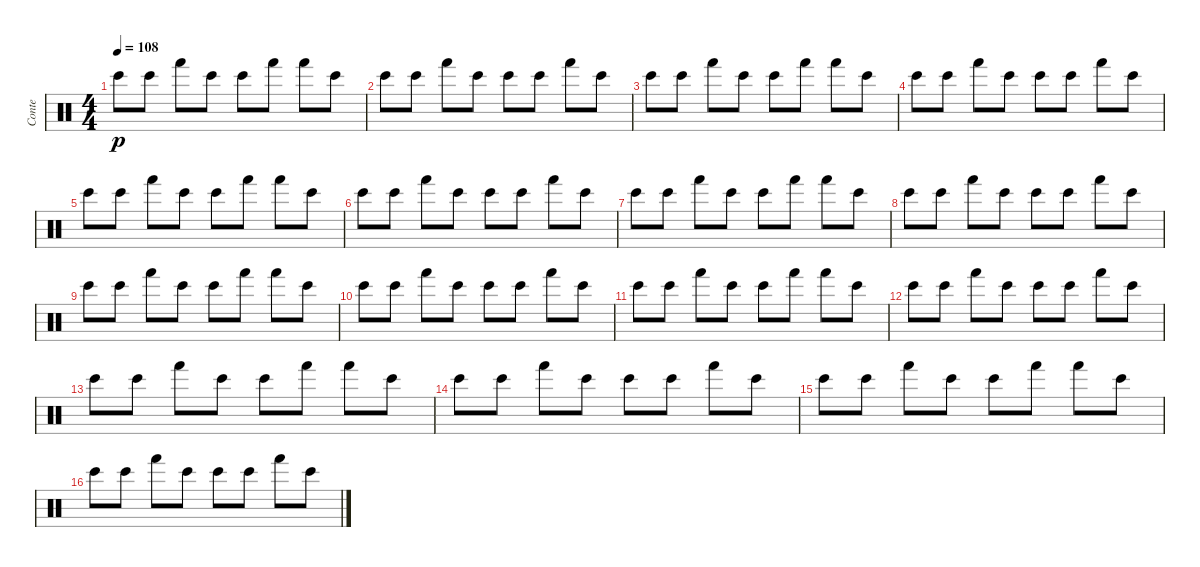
\track ("Conte" "Conte") {instrument percussion}
\staff {score}
\articulation defaults
\ts (4 4)
\tempo 108
\clef neutral
\ks c "Bongo High (hit)".8{dy p} "Bongo High (hit)".8 "Hand (hit)".8 "Bongo High (hit)".8 "Bongo High (hit)".8 "Hand (hit)".8 "Hand (hit)".8 "Bongo High (hit)".8
|
"Bongo High (hit)".8 "Bongo High (hit)".8 "Hand (hit)".8 "Bongo High (hit)".8 "Bongo High (hit)".8 "Bongo High (hit)".8 "Hand (hit)".8 "Bongo High (hit)".8 |
"Bongo High (hit)".8 "Bongo High (hit)".8 "Hand (hit)".8 "Bongo High (hit)".8 "Bongo High (hit)".8 "Hand (hit)".8 "Hand (hit)".8 "Bongo High (hit)".8 |
"Bongo High (hit)".8 "Bongo High (hit)".8 "Hand (hit)".8 "Bongo High (hit)".8 "Bongo High (hit)".8 "Bongo High (hit)".8 "Hand (hit)".8 "Bongo High (hit)".8 |
"Bongo High (hit)".8 "Bongo High (hit)".8 "Hand (hit)".8 "Bongo High (hit)".8 "Bongo High (hit)".8 "Hand (hit)".8 "Hand (hit)".8 "Bongo High (hit)".8 |
"Bongo High (hit)".8 "Bongo High (hit)".8 "Hand (hit)".8 "Bongo High (hit)".8 "Bongo High (hit)".8 "Bongo High (hit)".8 "Hand (hit)".8 "Bongo High (hit)".8 |
"Bongo High (hit)".8 "Bongo High (hit)".8 "Hand (hit)".8 "Bongo High (hit)".8 "Bongo High (hit)".8 "Hand (hit)".8 "Hand (hit)".8 "Bongo High (hit)".8 |
"Bongo High (hit)".8 "Bongo High (hit)".8 "Hand (hit)".8 "Bongo High (hit)".8 "Bongo High (hit)".8 "Bongo High (hit)".8 "Hand (hit)".8 "Bongo High (hit)".8 |
"Bongo High (hit)".8 "Bongo High (hit)".8 "Hand (hit)".8 "Bongo High (hit)".8 "Bongo High (hit)".8 "Hand (hit)".8 "Hand (hit)".8 "Bongo High (hit)".8 |
"Bongo High (hit)".8 "Bongo High (hit)".8 "Hand (hit)".8 "Bongo High (hit)".8 "Bongo High (hit)".8 "Bongo High (hit)".8 "Hand (hit)".8 "Bongo High (hit)".8 |
"Bongo High (hit)".8 "Bongo High (hit)".8 "Hand (hit)".8 "Bongo High (hit)".8 "Bongo High (hit)".8 "Hand (hit)".8 "Hand (hit)".8 "Bongo High (hit)".8 |
"Bongo High (hit)".8 "Bongo High (hit)".8 "Hand (hit)".8 "Bongo High (hit)".8 "Bongo High (hit)".8 "Bongo High (hit)".8 "Hand (hit)".8 "Bongo High (hit)".8 |
"Bongo High (hit)".8 "Bongo High (hit)".8 "Hand (hit)".8 "Bongo High (hit)".8 "Bongo High (hit)".8 "Hand (hit)".8 "Hand (hit)".8 "Bongo High (hit)".8 |
"Bongo High (hit)".8 "Bongo High (hit)".8 "Hand (hit)".8 "Bongo High (hit)".8 "Bongo High (hit)".8 "Bongo High (hit)".8 "Hand (hit)".8 "Bongo High (hit)".8 |
"Bongo High (hit)".8 "Bongo High (hit)".8 "Hand (hit)".8 "Bongo High (hit)".8 "Bongo High (hit)".8 "Hand (hit)".8 "Hand (hit)".8 "Bongo High (hit)".8 |
"Bongo High (hit)".8 "Bongo High (hit)".8 "Hand (hit)".8 "Bongo High (hit)".8 "Bongo High (hit)".8 "Bongo High (hit)".8 "Hand (hit)".8 "Bongo High (hit)".8
